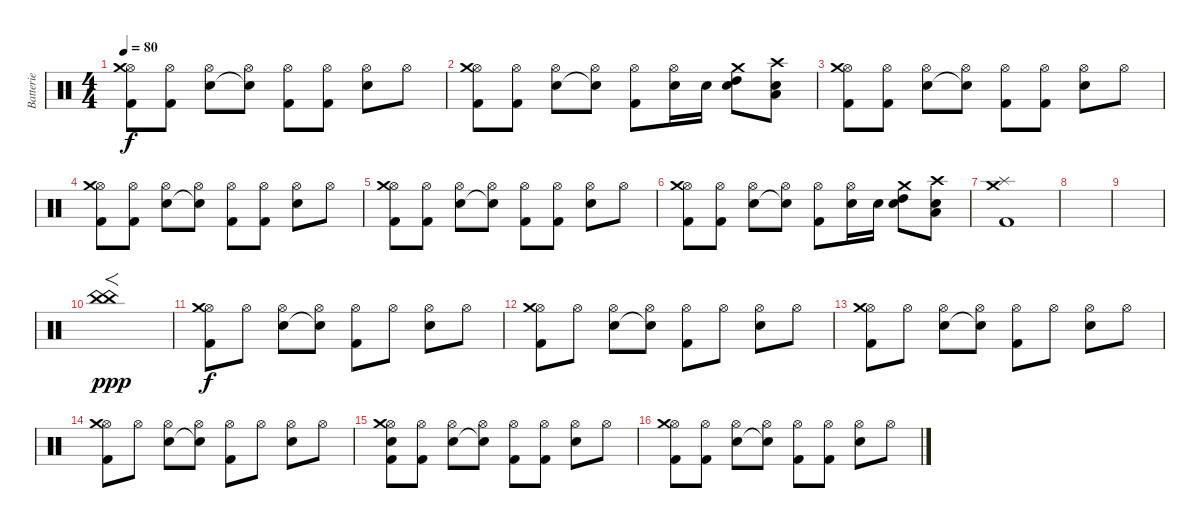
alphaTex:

\track ("Batterie" "Batterie") {instrument percussion}
\staff {score}
\articulation defaults
\ts (4 4)
\tempo 80
\clef neutral
\ks c
("Hi-Hat (open)" "Crash medium (hit)" "Kick (hit) 2").8{dy f} ("Hi-Hat (open)" "Kick (hit) 2").8 ("Hi-Hat (open)" "Snare (hit) 2").8 ("Hi-Hat (open)" "Snare (hit)"{t}).8 ("Hi-Hat (open)" "Kick (hit) 2").8 ("Hi-Hat (open)" "Kick (hit) 2").8 ("Hi-Hat (open)" "Snare (hit) 2").8 "Hi-Hat (open)".8 |
("Hi-Hat (open)" "Crash medium (hit)" "Kick (hit) 2").8 ("Hi-Hat (open)" "Kick (hit) 2").8 ("Hi-Hat (open)" "Snare (hit) 2").8 ("Hi-Hat (open)" "Snare (hit)"{t}).8 ("Hi-Hat (open)" "Kick (hit) 2").8 ("Hi-Hat (open)" "Snare (hit) 2").16 "Snare (hit) 2".16 ("Crash medium (hit)" "High Tom (hit)" "Snare (hit) 2").8 ("Crash high (hit)" "Low Tom (hit)" "Snare (hit) 2").8 |
("Hi-Hat (open)" "Crash medium (hit)" "Kick (hit) 2").8 ("Hi-Hat (open)" "Kick (hit) 2").8 ("Hi-Hat (open)" "Snare (hit) 2").8 ("Hi-Hat (open)" "Snare (hit)"{t}).8 ("Hi-Hat (open)" "Kick (hit) 2").8 ("Hi-Hat (open)" "Kick (hit) 2").8 ("Hi-Hat (open)" "Snare (hit) 2").8 "Hi-Hat (open)".8 |
("Hi-Hat (open)" "Crash medium (hit)" "Kick (hit) 2").8 ("Hi-Hat (open)" "Kick (hit) 2").8 ("Hi-Hat (open)" "Snare (hit) 2").8 ("Hi-Hat (open)" "Snare (hit)"{t}).8 ("Hi-Hat (open)" "Kick (hit) 2").8 ("Hi-Hat (open)" "Kick (hit) 2").8 ("Hi-Hat (open)" "Snare (hit) 2").8 "Hi-Hat (open)".8 |
("Hi-Hat (open)" "Crash medium (hit)" "Kick (hit) 2").8 ("Hi-Hat (open)" "Kick (hit) 2").8 ("Hi-Hat (open)" "Snare (hit) 2").8 ("Hi-Hat (open)" "Snare (hit)"{t}).8 ("Hi-Hat (open)" "Kick (hit) 2").8 ("Hi-Hat (open)" "Kick (hit) 2").8 ("Hi-Hat (open)" "Snare (hit) 2").8 "Hi-Hat (open)".8 |
("Hi-Hat (open)" "Crash medium (hit)" "Kick (hit) 2").8 ("Hi-Hat (open)" "Kick (hit) 2").8 ("Hi-Hat (open)" "Snare (hit) 2").8 ("Hi-Hat (open)" "Snare (hit)"{t}).8 ("Hi-Hat (open)" "Kick (hit) 2").8 ("Hi-Hat (open)" "Snare (hit) 2").16 "Snare (hit) 2".16 ("Crash medium (hit)" "High Tom (hit)" "Snare (hit) 2").8 ("Crash high (hit)" "Low Tom (hit)" "Snare (hit) 2").8 |
("Crash medium (hit)" "Splash (hit)" "Kick (hit) 2").1 |
|
|
("China (hit)" "China (hit)").1{f dy ppp} |
("Hi-Hat (open)" "Crash medium (hit)" "Kick (hit) 2").8{dy f} "Hi-Hat (open)".8 ("Hi-Hat (open)" "Snare (hit) 2").8 ("Hi-Hat (open)" "Snare (hit)"{t}).8 ("Hi-Hat (open)" "Kick (hit) 2").8 "Hi-Hat (open)".8 ("Hi-Hat (open)" "Snare (hit) 2").8 "Hi-Hat (open)".8 |
("Hi-Hat (open)" "Crash medium (hit)" "Kick (hit) 2").8 "Hi-Hat (open)".8 ("Hi-Hat (open)" "Snare (hit) 2").8 ("Hi-Hat (open)" "Snare (hit)"{t}).8 ("Hi-Hat (open)" "Kick (hit) 2").8 "Hi-Hat (open)".8 ("Hi-Hat (open)" "Snare (hit) 2").8 "Hi-Hat (open)".8 |
("Hi-Hat (open)" "Crash medium (hit)" "Kick (hit) 2").8 "Hi-Hat (open)".8 ("Hi-Hat (open)" "Snare (hit) 2").8 ("Hi-Hat (open)" "Snare (hit)"{t}).8 ("Hi-Hat (open)" "Kick (hit) 2").8 "Hi-Hat (open)".8 ("Hi-Hat (open)" "Snare (hit) 2").8 "Hi-Hat (open)".8 |
("Hi-Hat (open)" "Crash medium (hit)" "Kick (hit) 2").8 "Hi-Hat (open)".8 ("Hi-Hat (open)" "Snare (hit) 2").8 ("Hi-Hat (open)" "Snare (hit)"{t}).8 ("Hi-Hat (open)" "Kick (hit) 2").8 "Hi-Hat (open)".8 ("Hi-Hat (open)" "Snare (hit) 2").8 "Hi-Hat (open)".8 |
("Hi-Hat (open)" "Crash medium (hit)" "Kick (hit) 2" "Snare (hit) 2").8 ("Hi-Hat (open)" "Kick (hit) 2").8 ("Hi-Hat (open)" "Snare (hit) 2").8 ("Hi-Hat (open)" "Snare (hit)"{t}).8 ("Hi-Hat (open)" "Kick (hit) 2").8 ("Hi-Hat (open)" "Kick (hit) 2").8 ("Hi-Hat (open)" "Snare (hit) 2").8 "Hi-Hat (open)".8 |
("Hi-Hat (open)" "Crash medium (hit)" "Kick (hit) 2").8 ("Hi-Hat (open)" "Kick (hit) 2").8 ("Hi-Hat (open)" "Snare (hit) 2").8 ("Hi-Hat (open)" "Snare (hit)"{t}).8 ("Hi-Hat (open)" "Kick (hit) 2").8 ("Hi-Hat (open)" "Kick (hit) 2").8 ("Hi-Hat (open)" "Snare (hit) 2").8 "Hi-Hat (open)".8
